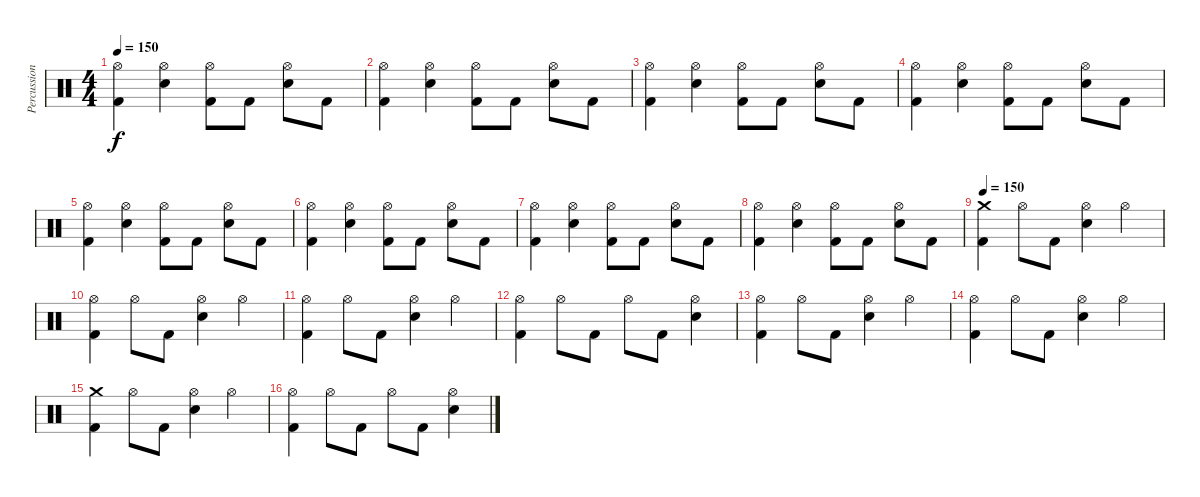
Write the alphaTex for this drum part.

\track ("Percussion" "Percussion") {instrument percussion}
\staff {score}
\articulation defaults
\ts (4 4)
\tempo 150
\clef neutral
\ks c
("Kick (hit) 2" "Hi-Hat (open)").4{dy f} ("Snare (hit) 2" "Hi-Hat (open)").4 ("Kick (hit) 2" "Hi-Hat (open)").8 "Kick (hit) 2".8 ("Snare (hit) 2" "Hi-Hat (open)").8 "Kick (hit) 2".8 |
("Kick (hit) 2" "Hi-Hat (open)").4 ("Snare (hit) 2" "Hi-Hat (open)").4 ("Kick (hit) 2" "Hi-Hat (open)").8 "Kick (hit) 2".8 ("Snare (hit) 2" "Hi-Hat (open)").8 "Kick (hit) 2".8 |
("Kick (hit) 2" "Hi-Hat (open)").4 ("Snare (hit) 2" "Hi-Hat (open)").4 ("Kick (hit) 2" "Hi-Hat (open)").8 "Kick (hit) 2".8 ("Snare (hit) 2" "Hi-Hat (open)").8 "Kick (hit) 2".8 |
("Kick (hit) 2" "Hi-Hat (open)").4 ("Snare (hit) 2" "Hi-Hat (open)").4 ("Kick (hit) 2" "Hi-Hat (open)").8 "Kick (hit) 2".8 ("Snare (hit) 2" "Hi-Hat (open)").8 "Kick (hit) 2".8 |
("Kick (hit) 2" "Hi-Hat (open)").4 ("Snare (hit) 2" "Hi-Hat (open)").4 ("Kick (hit) 2" "Hi-Hat (open)").8 "Kick (hit) 2".8 ("Snare (hit) 2" "Hi-Hat (open)").8 "Kick (hit) 2".8 |
("Kick (hit) 2" "Hi-Hat (open)").4 ("Snare (hit) 2" "Hi-Hat (open)").4 ("Kick (hit) 2" "Hi-Hat (open)").8 "Kick (hit) 2".8 ("Snare (hit) 2" "Hi-Hat (open)").8 "Kick (hit) 2".8 |
("Kick (hit) 2" "Hi-Hat (open)").4 ("Snare (hit) 2" "Hi-Hat (open)").4 ("Kick (hit) 2" "Hi-Hat (open)").8 "Kick (hit) 2".8 ("Snare (hit) 2" "Hi-Hat (open)").8 "Kick (hit) 2".8 |
("Kick (hit) 2" "Hi-Hat (open)").4 ("Snare (hit) 2" "Hi-Hat (open)").4 ("Kick (hit) 2" "Hi-Hat (open)").8 "Kick (hit) 2".8 ("Snare (hit) 2" "Hi-Hat (open)").8 "Kick (hit) 2".8 |
\tempo 150
("Kick (hit) 2" "Crash medium (hit)").4 "Hi-Hat (open)".8 "Kick (hit) 2".8 ("Snare (hit) 2" "Hi-Hat (open)").4 "Hi-Hat (open)".4 |
("Kick (hit) 2" "Hi-Hat (open)").4 "Hi-Hat (open)".8 "Kick (hit) 2".8 ("Snare (hit) 2" "Hi-Hat (open)").4 "Hi-Hat (open)".4 |
("Kick (hit) 2" "Hi-Hat (open)").4 "Hi-Hat (open)".8 "Kick (hit) 2".8 ("Snare (hit) 2" "Hi-Hat (open)").4 "Hi-Hat (open)".4 |
("Kick (hit) 2" "Hi-Hat (open)").4 "Hi-Hat (open)".8 "Kick (hit) 2".8 "Hi-Hat (open)".8 "Kick (hit) 2".8 ("Snare (hit) 2" "Hi-Hat (open)").4 |
("Kick (hit) 2" "Hi-Hat (open)").4 "Hi-Hat (open)".8 "Kick (hit) 2".8 ("Snare (hit) 2" "Hi-Hat (open)").4 "Hi-Hat (open)".4 |
("Kick (hit) 2" "Hi-Hat (open)").4 "Hi-Hat (open)".8 "Kick (hit) 2".8 ("Snare (hit) 2" "Hi-Hat (open)").4 "Hi-Hat (open)".4 |
("Kick (hit) 2" "Crash medium (hit)").4 "Hi-Hat (open)".8 "Kick (hit) 2".8 ("Snare (hit) 2" "Hi-Hat (open)").4 "Hi-Hat (open)".4 |
("Kick (hit) 2" "Hi-Hat (open)").4 "Hi-Hat (open)".8 "Kick (hit) 2".8 "Hi-Hat (open)".8 "Kick (hit) 2".8 ("Snare (hit) 2" "Hi-Hat (open)").4
